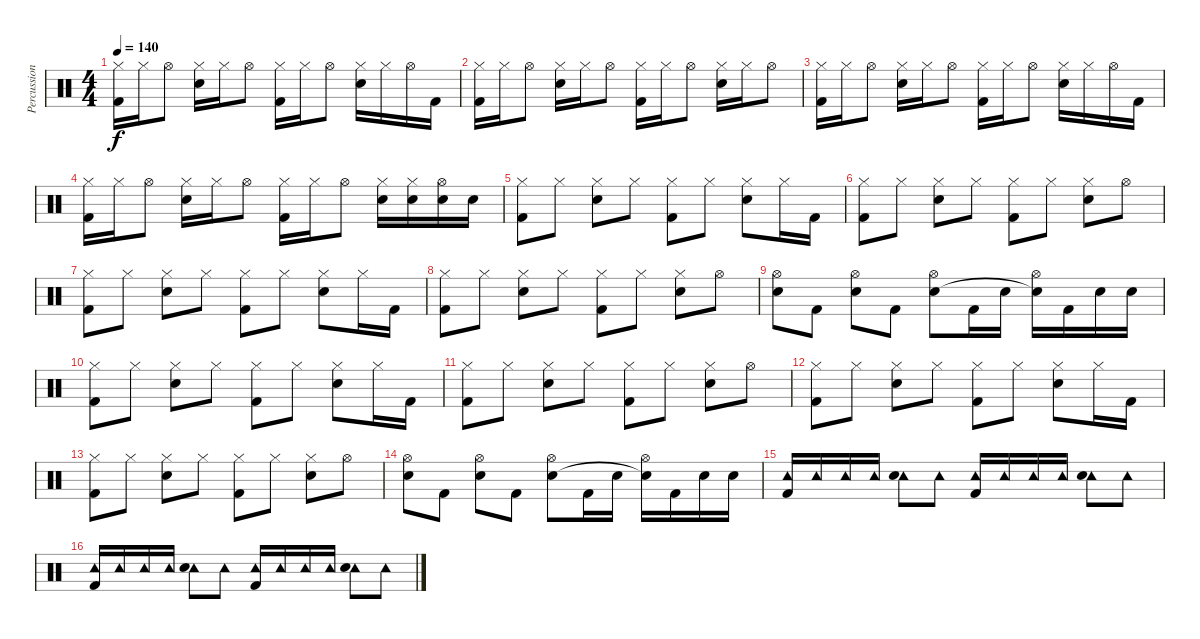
\track ("Percussion" "Percussion") {instrument percussion}
\staff {score}
\articulation defaults
\ts (4 4)
\tempo 140
\clef neutral
\ks c
("Hi-Hat (closed)" "Kick (hit) 2").16{dy f} "Hi-Hat (closed)".16 "Hi-Hat (open)".8 ("Hi-Hat (closed)" "Snare (hit) 2").16 "Hi-Hat (closed)".16 "Hi-Hat (open)".8 ("Hi-Hat (closed)" "Kick (hit) 2").16 "Hi-Hat (closed)".16 "Hi-Hat (open)".8 ("Hi-Hat (closed)" "Snare (hit) 2").16 "Hi-Hat (closed)".16 "Hi-Hat (open)".16 "Kick (hit) 2".16 |
("Hi-Hat (closed)" "Kick (hit) 2").16 "Hi-Hat (closed)".16 "Hi-Hat (open)".8 ("Hi-Hat (closed)" "Snare (hit) 2").16 "Hi-Hat (closed)".16 "Hi-Hat (open)".8 ("Hi-Hat (closed)" "Kick (hit) 2").16 "Hi-Hat (closed)".16 "Hi-Hat (open)".8 ("Hi-Hat (closed)" "Snare (hit) 2").16 "Hi-Hat (closed)".16 "Hi-Hat (open)".8 |
("Hi-Hat (closed)" "Kick (hit) 2").16 "Hi-Hat (closed)".16 "Hi-Hat (open)".8 ("Hi-Hat (closed)" "Snare (hit) 2").16 "Hi-Hat (closed)".16 "Hi-Hat (open)".8 ("Hi-Hat (closed)" "Kick (hit) 2").16 "Hi-Hat (closed)".16 "Hi-Hat (open)".8 ("Hi-Hat (closed)" "Snare (hit) 2").16 "Hi-Hat (closed)".16 "Hi-Hat (open)".16 "Kick (hit) 2".16 |
("Hi-Hat (closed)" "Kick (hit) 2").16 "Hi-Hat (closed)".16 "Hi-Hat (open)".8 ("Hi-Hat (closed)" "Snare (hit) 2").16 "Hi-Hat (closed)".16 "Hi-Hat (open)".8 ("Hi-Hat (closed)" "Kick (hit) 2").16 "Hi-Hat (closed)".16 "Hi-Hat (open)".8 ("Hi-Hat (closed)" "Snare (hit) 2").16 ("Hi-Hat (closed)" "Snare (hit) 2").16 ("Hi-Hat (open)" "Snare (hit) 2").16 "Snare (hit) 2".16 |
("Hi-Hat (closed)" "Kick (hit) 2").8 "Hi-Hat (closed)".8 ("Hi-Hat (closed)" "Snare (hit) 2").8 "Hi-Hat (closed)".8 ("Hi-Hat (closed)" "Kick (hit) 2").8 "Hi-Hat (closed)".8 ("Hi-Hat (closed)" "Snare (hit) 2").8 "Hi-Hat (closed)".16 "Kick (hit) 2".16 |
("Hi-Hat (closed)" "Kick (hit) 2").8 "Hi-Hat (closed)".8 ("Hi-Hat (closed)" "Snare (hit) 2").8 "Hi-Hat (closed)".8 ("Hi-Hat (closed)" "Kick (hit) 2").8 "Hi-Hat (closed)".8 ("Hi-Hat (closed)" "Snare (hit) 2").8 "Hi-Hat (open)".8 |
("Hi-Hat (closed)" "Kick (hit) 2").8 "Hi-Hat (closed)".8 ("Hi-Hat (closed)" "Snare (hit) 2").8 "Hi-Hat (closed)".8 ("Hi-Hat (closed)" "Kick (hit) 2").8 "Hi-Hat (closed)".8 ("Hi-Hat (closed)" "Snare (hit) 2").8 "Hi-Hat (closed)".16 "Kick (hit) 2".16 |
("Hi-Hat (closed)" "Kick (hit) 2").8 "Hi-Hat (closed)".8 ("Hi-Hat (closed)" "Snare (hit) 2").8 "Hi-Hat (closed)".8 ("Hi-Hat (closed)" "Kick (hit) 2").8 "Hi-Hat (closed)".8 ("Hi-Hat (closed)" "Snare (hit) 2").8 "Hi-Hat (open)".8 |
("Hi-Hat (open)" "Snare (hit) 2").8 "Kick (hit) 2".8 ("Hi-Hat (open)" "Snare (hit) 2").8 "Kick (hit) 2".8 ("Hi-Hat (open)" "Snare (hit) 2").8 "Kick (hit) 2".16 "Snare (hit) 2".16 ("Hi-Hat (open)" "Snare (hit)"{t}).16 "Kick (hit) 2".16 "Snare (hit) 2".16 "Snare (hit) 2".16 |
("Hi-Hat (closed)" "Kick (hit) 2").8 "Hi-Hat (closed)".8 ("Hi-Hat (closed)" "Snare (hit) 2").8 "Hi-Hat (closed)".8 ("Hi-Hat (closed)" "Kick (hit) 2").8 "Hi-Hat (closed)".8 ("Hi-Hat (closed)" "Snare (hit) 2").8 "Hi-Hat (closed)".16 "Kick (hit) 2".16 |
("Hi-Hat (closed)" "Kick (hit) 2").8 "Hi-Hat (closed)".8 ("Hi-Hat (closed)" "Snare (hit) 2").8 "Hi-Hat (closed)".8 ("Hi-Hat (closed)" "Kick (hit) 2").8 "Hi-Hat (closed)".8 ("Hi-Hat (closed)" "Snare (hit) 2").8 "Hi-Hat (open)".8 |
("Hi-Hat (closed)" "Kick (hit) 2").8 "Hi-Hat (closed)".8 ("Hi-Hat (closed)" "Snare (hit) 2").8 "Hi-Hat (closed)".8 ("Hi-Hat (closed)" "Kick (hit) 2").8 "Hi-Hat (closed)".8 ("Hi-Hat (closed)" "Snare (hit) 2").8 "Hi-Hat (closed)".16 "Kick (hit) 2".16 |
("Hi-Hat (closed)" "Kick (hit) 2").8 "Hi-Hat (closed)".8 ("Hi-Hat (closed)" "Snare (hit) 2").8 "Hi-Hat (closed)".8 ("Hi-Hat (closed)" "Kick (hit) 2").8 "Hi-Hat (closed)".8 ("Hi-Hat (closed)" "Snare (hit) 2").8 "Hi-Hat (open)".8 |
("Hi-Hat (open)" "Snare (hit) 2").8 "Kick (hit) 2".8 ("Hi-Hat (open)" "Snare (hit) 2").8 "Kick (hit) 2".8 ("Hi-Hat (open)" "Snare (hit) 2").8 "Kick (hit) 2".16 "Snare (hit) 2".16 ("Hi-Hat (open)" "Snare (hit)"{t}).16 "Kick (hit) 2".16 "Snare (hit) 2".16 "Snare (hit) 2".16 |
("Tambourine (hit)" "Kick (hit) 2").16 "Tambourine (hit)".16 "Tambourine (hit)".16 "Tambourine (hit)".16 ("Tambourine (hit)" "Snare (hit) 2").8 "Tambourine (hit)".8 ("Tambourine (hit)" "Kick (hit) 2").16 "Tambourine (hit)".16 "Tambourine (hit)".16 "Tambourine (hit)".16 ("Tambourine (hit)" "Snare (hit) 2").8 "Tambourine (hit)".8 |
("Tambourine (hit)" "Kick (hit) 2").16 "Tambourine (hit)".16 "Tambourine (hit)".16 "Tambourine (hit)".16 ("Tambourine (hit)" "Snare (hit) 2").8 "Tambourine (hit)".8 ("Tambourine (hit)" "Kick (hit) 2").16 "Tambourine (hit)".16 "Tambourine (hit)".16 "Tambourine (hit)".16 ("Tambourine (hit)" "Snare (hit) 2").8 "Tambourine (hit)".8
